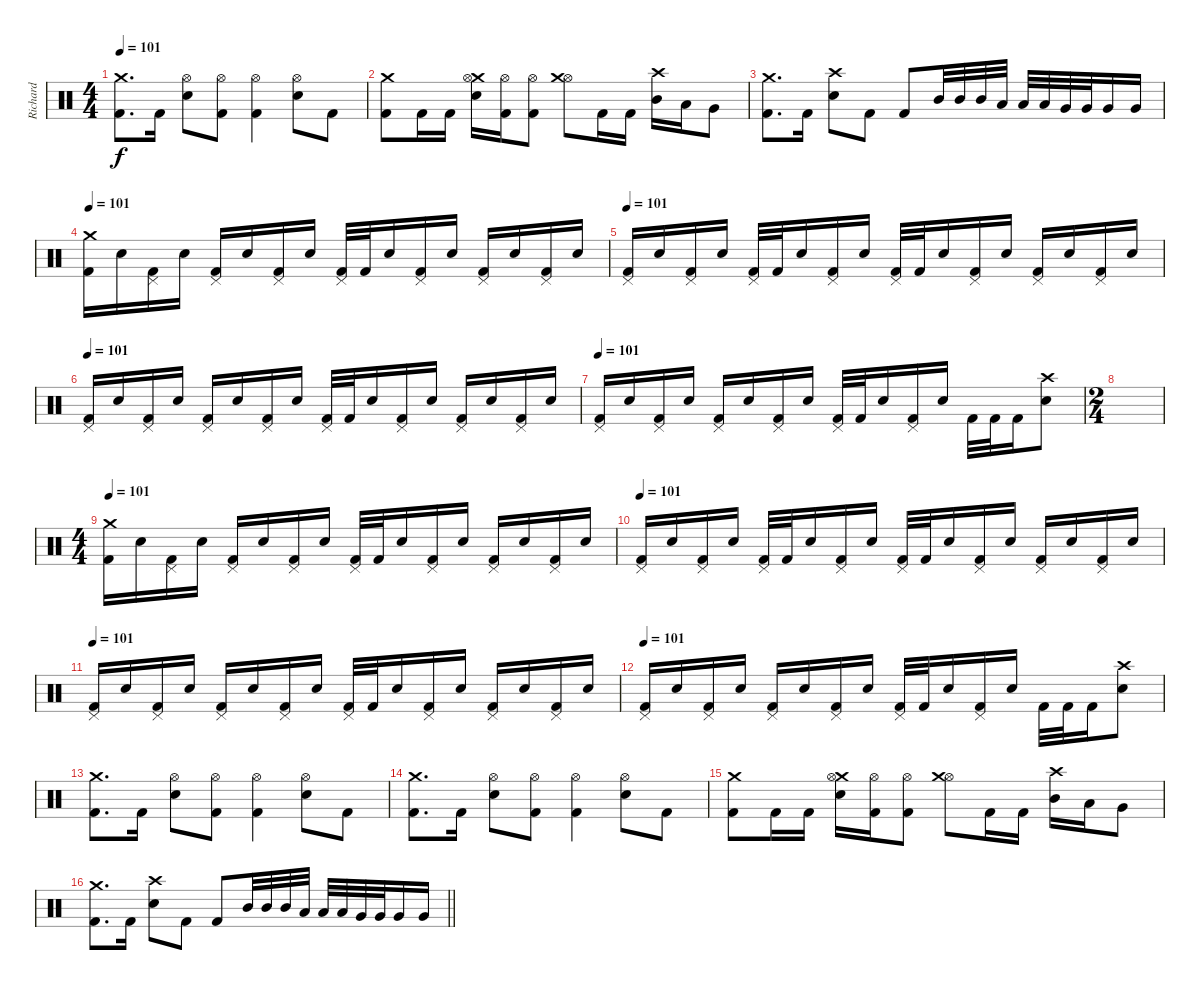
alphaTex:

\track ("Richard" "Richard") {instrument percussion}
\staff {score}
\articulation defaults
\ts (4 4)
\tempo 101
\clef neutral
\ks c
("Crash medium (hit)" "Kick (hit) 2").8{d dy f} "Kick (hit) 2".16 ("Hi-Hat (open)" "Electric Snare (hit)").8 ("Hi-Hat (open)" "Kick (hit) 2").8 ("Hi-Hat (open)" "Kick (hit) 2").4 ("Hi-Hat (open)" "Electric Snare (hit)").8 "Kick (hit) 2".8 |
("Crash medium (hit)" "Kick (hit) 2").8 "Kick (hit) 2".16 "Kick (hit) 2".16 ("Crash medium (hit)" "Hi-Hat (open)" "Electric Snare (hit)").16 ("Hi-Hat (open)" "Kick (hit) 2").16 ("Hi-Hat (open)" "Kick (hit) 2").8 ("Hi-Hat (open)" "Crash medium (hit)").8 "Kick (hit) 2".16 "Kick (hit) 2".16 ("Crash high (hit)" "Mid Tom (hit)").16 "Low Tom (hit)".16 "Very Low Tom (hit)".8 |
("Crash medium (hit)" "Kick (hit) 2").8{d} "Kick (hit) 2".16 ("Crash high (hit)" "Electric Snare (hit)").8 "Kick (hit) 2".8 "Kick (hit) 2".8 "Mid Tom (hit)".32 "Mid Tom (hit)".32 "Mid Tom (hit)".32 "Low Tom (hit)".32 "Low Tom (hit)".32 "Low Tom (hit)".32 "Very Low Tom (hit)".32 "Very Low Tom (hit)".32 "Very Low Tom (hit)".16 "Very Low Tom (hit)".16 |
\tempo 101
("Crash medium (hit)" "Kick (hit) 2").16 "Electric Snare (hit)".16 ("Pedal Hi-Hat (hit)" "Kick (hit) 2").16 "Electric Snare (hit)".16 ("Pedal Hi-Hat (hit)" "Kick (hit) 2").16 "Electric Snare (hit)".16 ("Pedal Hi-Hat (hit)" "Kick (hit) 2").16 "Electric Snare (hit)".16 ("Pedal Hi-Hat (hit)" "Kick (hit) 2").32 "Kick (hit) 2".32 "Electric Snare (hit)".16 ("Pedal Hi-Hat (hit)" "Kick (hit) 2").16 "Electric Snare (hit)".16 ("Pedal Hi-Hat (hit)" "Kick (hit) 2").16 "Electric Snare (hit)".16 ("Pedal Hi-Hat (hit)" "Kick (hit) 2").16 "Electric Snare (hit)".16 |
\tempo 101
("Pedal Hi-Hat (hit)" "Kick (hit) 2").16 "Electric Snare (hit)".16 ("Pedal Hi-Hat (hit)" "Kick (hit) 2").16 "Electric Snare (hit)".16 ("Pedal Hi-Hat (hit)" "Kick (hit) 2").32 "Kick (hit) 2".32 "Electric Snare (hit)".16 ("Pedal Hi-Hat (hit)" "Kick (hit) 2").16 "Electric Snare (hit)".16 ("Pedal Hi-Hat (hit)" "Kick (hit) 2").32 "Kick (hit) 2".32 "Electric Snare (hit)".16 ("Pedal Hi-Hat (hit)" "Kick (hit) 2").16 "Electric Snare (hit)".16 ("Pedal Hi-Hat (hit)" "Kick (hit) 2").16 "Electric Snare (hit)".16 ("Pedal Hi-Hat (hit)" "Kick (hit) 2").16 "Electric Snare (hit)".16 |
\tempo 101
("Pedal Hi-Hat (hit)" "Kick (hit) 2").16 "Electric Snare (hit)".16 ("Pedal Hi-Hat (hit)" "Kick (hit) 2").16 "Electric Snare (hit)".16 ("Pedal Hi-Hat (hit)" "Kick (hit) 2").16 "Electric Snare (hit)".16 ("Pedal Hi-Hat (hit)" "Kick (hit) 2").16 "Electric Snare (hit)".16 ("Pedal Hi-Hat (hit)" "Kick (hit) 2").32 "Kick (hit) 2".32 "Electric Snare (hit)".16 ("Pedal Hi-Hat (hit)" "Kick (hit) 2").16 "Electric Snare (hit)".16 ("Pedal Hi-Hat (hit)" "Kick (hit) 2").16 "Electric Snare (hit)".16 ("Pedal Hi-Hat (hit)" "Kick (hit) 2").16 "Electric Snare (hit)".16 |
\tempo 101
("Pedal Hi-Hat (hit)" "Kick (hit) 2").16 "Electric Snare (hit)".16 ("Pedal Hi-Hat (hit)" "Kick (hit) 2").16 "Electric Snare (hit)".16 ("Pedal Hi-Hat (hit)" "Kick (hit) 2").16 "Electric Snare (hit)".16 ("Pedal Hi-Hat (hit)" "Kick (hit) 2").16 "Electric Snare (hit)".16 ("Pedal Hi-Hat (hit)" "Kick (hit) 2").32 "Kick (hit) 2".32 "Electric Snare (hit)".16 ("Pedal Hi-Hat (hit)" "Kick (hit) 2").16 "Electric Snare (hit)".16 "Kick (hit) 2".32 "Kick (hit) 2".32 "Kick (hit) 2".16 ("Crash high (hit)" "Electric Snare (hit)").8 |
\ts (2 4)
|
\ts (4 4)
\tempo 101
("Crash medium (hit)" "Kick (hit) 2").16 "Electric Snare (hit)".16 ("Pedal Hi-Hat (hit)" "Kick (hit) 2").16 "Electric Snare (hit)".16 ("Pedal Hi-Hat (hit)" "Kick (hit) 2").16 "Electric Snare (hit)".16 ("Pedal Hi-Hat (hit)" "Kick (hit) 2").16 "Electric Snare (hit)".16 ("Pedal Hi-Hat (hit)" "Kick (hit) 2").32 "Kick (hit) 2".32 "Electric Snare (hit)".16 ("Pedal Hi-Hat (hit)" "Kick (hit) 2").16 "Electric Snare (hit)".16 ("Pedal Hi-Hat (hit)" "Kick (hit) 2").16 "Electric Snare (hit)".16 ("Pedal Hi-Hat (hit)" "Kick (hit) 2").16 "Electric Snare (hit)".16 |
\tempo 101
("Pedal Hi-Hat (hit)" "Kick (hit) 2").16 "Electric Snare (hit)".16 ("Pedal Hi-Hat (hit)" "Kick (hit) 2").16 "Electric Snare (hit)".16 ("Pedal Hi-Hat (hit)" "Kick (hit) 2").32 "Kick (hit) 2".32 "Electric Snare (hit)".16 ("Pedal Hi-Hat (hit)" "Kick (hit) 2").16 "Electric Snare (hit)".16 ("Pedal Hi-Hat (hit)" "Kick (hit) 2").32 "Kick (hit) 2".32 "Electric Snare (hit)".16 ("Pedal Hi-Hat (hit)" "Kick (hit) 2").16 "Electric Snare (hit)".16 ("Pedal Hi-Hat (hit)" "Kick (hit) 2").16 "Electric Snare (hit)".16 ("Pedal Hi-Hat (hit)" "Kick (hit) 2").16 "Electric Snare (hit)".16 |
\tempo 101
("Pedal Hi-Hat (hit)" "Kick (hit) 2").16 "Electric Snare (hit)".16 ("Pedal Hi-Hat (hit)" "Kick (hit) 2").16 "Electric Snare (hit)".16 ("Pedal Hi-Hat (hit)" "Kick (hit) 2").16 "Electric Snare (hit)".16 ("Pedal Hi-Hat (hit)" "Kick (hit) 2").16 "Electric Snare (hit)".16 ("Pedal Hi-Hat (hit)" "Kick (hit) 2").32 "Kick (hit) 2".32 "Electric Snare (hit)".16 ("Pedal Hi-Hat (hit)" "Kick (hit) 2").16 "Electric Snare (hit)".16 ("Pedal Hi-Hat (hit)" "Kick (hit) 2").16 "Electric Snare (hit)".16 ("Pedal Hi-Hat (hit)" "Kick (hit) 2").16 "Electric Snare (hit)".16 |
\tempo 101
("Pedal Hi-Hat (hit)" "Kick (hit) 2").16 "Electric Snare (hit)".16 ("Pedal Hi-Hat (hit)" "Kick (hit) 2").16 "Electric Snare (hit)".16 ("Pedal Hi-Hat (hit)" "Kick (hit) 2").16 "Electric Snare (hit)".16 ("Pedal Hi-Hat (hit)" "Kick (hit) 2").16 "Electric Snare (hit)".16 ("Pedal Hi-Hat (hit)" "Kick (hit) 2").32 "Kick (hit) 2".32 "Electric Snare (hit)".16 ("Pedal Hi-Hat (hit)" "Kick (hit) 2").16 "Electric Snare (hit)".16 "Kick (hit) 2".32 "Kick (hit) 2".32 "Kick (hit) 2".16 ("Crash high (hit)" "Electric Snare (hit)").8 |
("Crash medium (hit)" "Kick (hit) 2").8{d} "Kick (hit) 2".16 ("Hi-Hat (open)" "Electric Snare (hit)").8 ("Hi-Hat (open)" "Kick (hit) 2").8 ("Hi-Hat (open)" "Kick (hit) 2").4 ("Hi-Hat (open)" "Electric Snare (hit)").8 "Kick (hit) 2".8 |
("Crash medium (hit)" "Kick (hit) 2").8{d} "Kick (hit) 2".16 ("Hi-Hat (open)" "Electric Snare (hit)").8 ("Hi-Hat (open)" "Kick (hit) 2").8 ("Hi-Hat (open)" "Kick (hit) 2").4 ("Hi-Hat (open)" "Electric Snare (hit)").8 "Kick (hit) 2".8 |
("Crash medium (hit)" "Kick (hit) 2").8 "Kick (hit) 2".16 "Kick (hit) 2".16 ("Crash medium (hit)" "Hi-Hat (open)" "Electric Snare (hit)").16 ("Hi-Hat (open)" "Kick (hit) 2").16 ("Hi-Hat (open)" "Kick (hit) 2").8 ("Hi-Hat (open)" "Crash medium (hit)").8 "Kick (hit) 2".16 "Kick (hit) 2".16 ("Crash high (hit)" "Mid Tom (hit)").16 "Low Tom (hit)".16 "Very Low Tom (hit)".8 |
\barLineRight lightlight
("Crash medium (hit)" "Kick (hit) 2").8{d} "Kick (hit) 2".16 ("Crash high (hit)" "Electric Snare (hit)").8 "Kick (hit) 2".8 "Kick (hit) 2".8 "Mid Tom (hit)".32 "Mid Tom (hit)".32 "Mid Tom (hit)".32 "Low Tom (hit)".32 "Low Tom (hit)".32 "Low Tom (hit)".32 "Very Low Tom (hit)".32 "Very Low Tom (hit)".32 "Very Low Tom (hit)".16 "Very Low Tom (hit)".16
